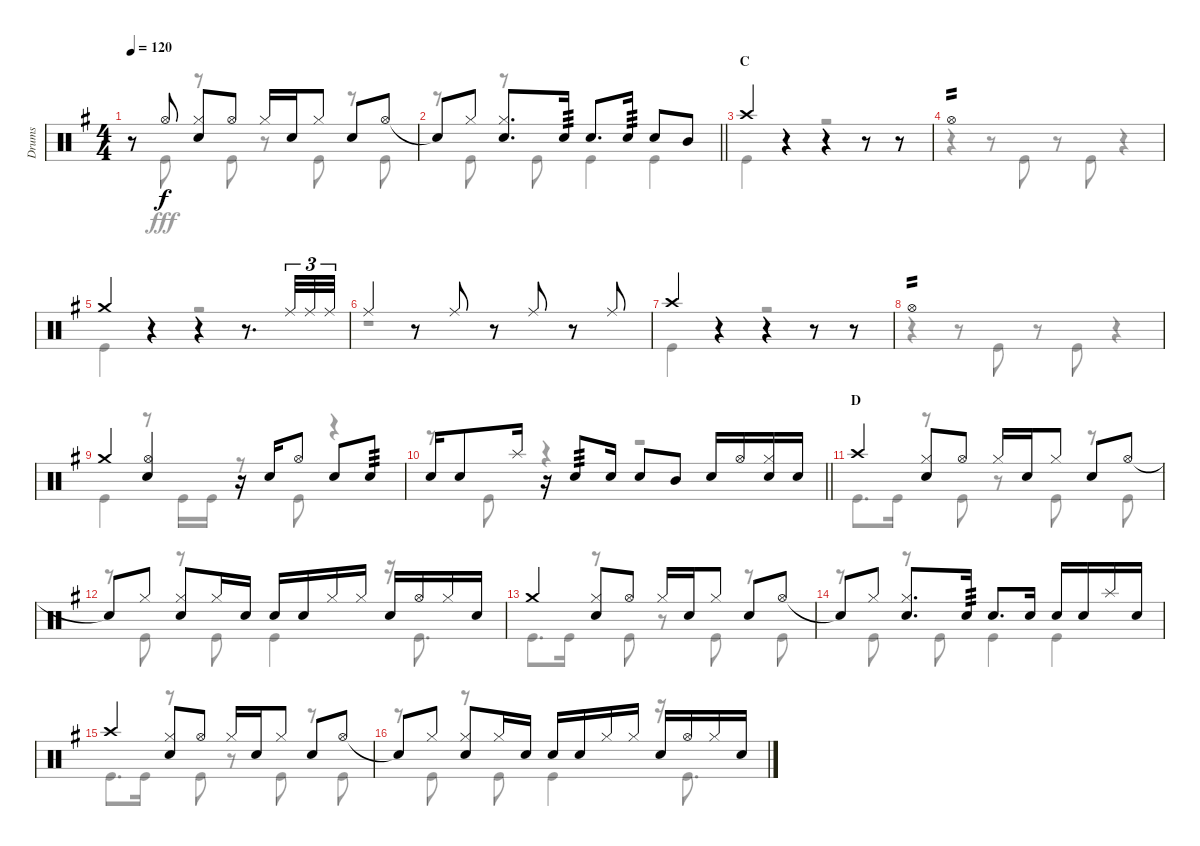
\track ("Drums" "Drums") {instrument percussion}
\staff {score}
\articulation defaults
\voice
\ts (4 4)
\tempo 120
\clef neutral
\ks g
r.8{dy f} "Hi-Hat (open)".8 ("Hi-Hat (closed)" "Snare (hit) 2").8 "Hi-Hat (open)".8 "Hi-Hat (closed)".16 "Snare (hit) 2".16 "Hi-Hat (closed)".8 "Snare (hit) 2".8 "Hi-Hat (open)".8 |
\barLineRight lightlight "Snare (hit)"{t}.8 "Hi-Hat (closed)".8
("Hi-Hat (closed)" "Snare (hit) 2").8{d} "Snare (hit) 2".16{tp 3} "Snare (hit) 2".8{d} "Snare (hit) 2".16{tp 3} "Snare (hit) 2".8 "Mid Tom (hit)".8 |
\section ("" "C")
"Crash high (hit)".4 r.4 r.4 r.8 r.8{volume 0} |
"Hi-Hat (open)".1{tp 2 volume 14} |
"Crash medium (hit)".4 r.4 r.4 r.8{d} "Ride (middle)".32{tu (3 2)} "Ride (middle)".32{tu (3 2)} "Ride (middle)".32{tu (3 2)} |
"Ride (middle)".4 r.8 "Ride (middle)".8 r.8 "Ride (middle)".8 r.8 "Ride (middle)".8 |
"Crash high (hit)".4 r.4 r.4 r.8 r.8{volume 0} |
"Hi-Hat (open)".1{tp 2 volume 14} |
"Crash medium (hit)".4 ("Hi-Hat (open)" "Snare (hit) 2").4 r.16 "Snare (hit) 2".16 "Hi-Hat (open)".8 "Snare (hit) 2".8 "Snare (hit) 2".8{tp 3} |
\barLineRight lightlight "Snare (hit) 2".16 "Snare (hit) 2".8 "Splash (hit)".16
r.16 "Snare (hit) 2".8{tp 3} "Snare (hit) 2".16 "Snare (hit) 2".8 "Mid Tom (hit)".8 "Snare (hit) 2".16 "Hi-Hat (open)".16 ("Hi-Hat (closed)" "Snare (hit) 2").16 "Snare (hit) 2".16 |
\section ("" "D")
"Crash high (hit)".4 ("Hi-Hat (closed)" "Snare (hit) 2").8 "Hi-Hat (open)".8 "Hi-Hat (closed)".16 "Snare (hit) 2".16 "Hi-Hat (closed)".8 "Snare (hit) 2".8 "Hi-Hat (open)".8 |
"Snare (hit)"{t}.8 "Hi-Hat (closed)".8 ("Hi-Hat (closed)" "Snare (hit) 2").8 "Hi-Hat (closed)".16 "Snare (hit) 2".16 "Snare (hit) 2".16 "Snare (hit) 2".16 "Hi-Hat (closed)".16 "Hi-Hat (closed)".16 "Snare (hit) 2".16 "Hi-Hat (open)".16 "Hi-Hat (closed)".16 "Snare (hit) 2".16 |
"Crash medium (hit)".4 ("Hi-Hat (closed)" "Snare (hit) 2").8 "Hi-Hat (open)".8 "Hi-Hat (closed)".16 "Snare (hit) 2".16 "Hi-Hat (closed)".8 "Snare (hit) 2".8 "Hi-Hat (open)".8 |
"Snare (hit)"{t}.8 "Hi-Hat (closed)".8 ("Hi-Hat (closed)" "Snare (hit) 2").8{d} "Snare (hit) 2".16{tp 3} "Snare (hit) 2".8{d} "Snare (hit) 2".16 "Snare (hit) 2".16 "Snare (hit) 2".16 "Splash (hit)".16 "Snare (hit) 2".16 |
"Crash high (hit)".4 ("Hi-Hat (closed)" "Snare (hit) 2").8 "Hi-Hat (open)".8 "Hi-Hat (closed)".16 "Snare (hit) 2".16 "Hi-Hat (closed)".8 "Snare (hit) 2".8 "Hi-Hat (open)".8 |
"Snare (hit)"{t}.8 "Hi-Hat (closed)".8 ("Hi-Hat (closed)" "Snare (hit) 2").8 "Hi-Hat (closed)".16 "Snare (hit) 2".16 "Snare (hit) 2".16 "Snare (hit) 2".16 "Hi-Hat (closed)".16 "Hi-Hat (closed)".16 "Snare (hit) 2".16 "Hi-Hat (open)".16 "Hi-Hat (closed)".16 "Snare (hit) 2".16
\voice
\clef neutral
\ottava regular
\simile none
\ks g
r.8{dy fff} "Kick (hit)".8 r.8 "Kick (hit)".8 r.8 "Kick (hit)".8 r.8 "Kick (hit)".8 |
\barLineRight lightlight
r.8 "Kick (hit)".8 r.8 "Kick (hit)".8 "Kick (hit)".4 "Kick (hit)".4 |
"Kick (hit)".4 r.4 r.2 |
r.4 r.8 "Kick (hit)".8 r.8 "Kick (hit)".8 r.4 |
"Kick (hit)".4 r.4 r.2 |
r.1 |
"Kick (hit)".4 r.4 r.2 |
r.4 r.8 "Kick (hit)".8 r.8 "Kick (hit)".8 r.4 |
"Kick (hit)".4 r.8 "Kick (hit)".16 "Kick (hit)".16 r.8 "Kick (hit)".8 r.4 |
\barLineRight lightlight
r.8 "Kick (hit)".8 r.4 r.2 |
"Kick (hit)".8{d} "Kick (hit)".16 r.8 "Kick (hit)".8 r.8 "Kick (hit)".8 r.8 "Kick (hit)".8 |
r.8 "Kick (hit)".8 r.8 "Kick (hit)".8 "Kick (hit)".4 r.16 "Kick (hit)".8{d} |
"Kick (hit)".8{d} "Kick (hit)".16 r.8 "Kick (hit)".8 r.8 "Kick (hit)".8 r.8 "Kick (hit)".8 |
r.8 "Kick (hit)".8 r.8 "Kick (hit)".8 "Kick (hit)".4 "Kick (hit)".4 |
"Kick (hit)".8{d} "Kick (hit)".16 r.8 "Kick (hit)".8 r.8 "Kick (hit)".8 r.8 "Kick (hit)".8 |
r.8 "Kick (hit)".8 r.8 "Kick (hit)".8 "Kick (hit)".4 r.16 "Kick (hit)".8{d}
